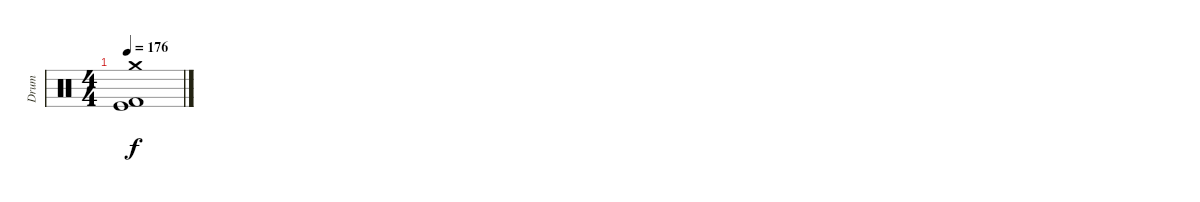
\track ("Drum" "Drum") {instrument percussion}
\staff {score}
\articulation defaults
\ts (4 4)
\tempo 176
\clef neutral
\ks c
("Crash medium (hit)" "Kick (hit)" "Kick (hit) 2").1{dy f}
